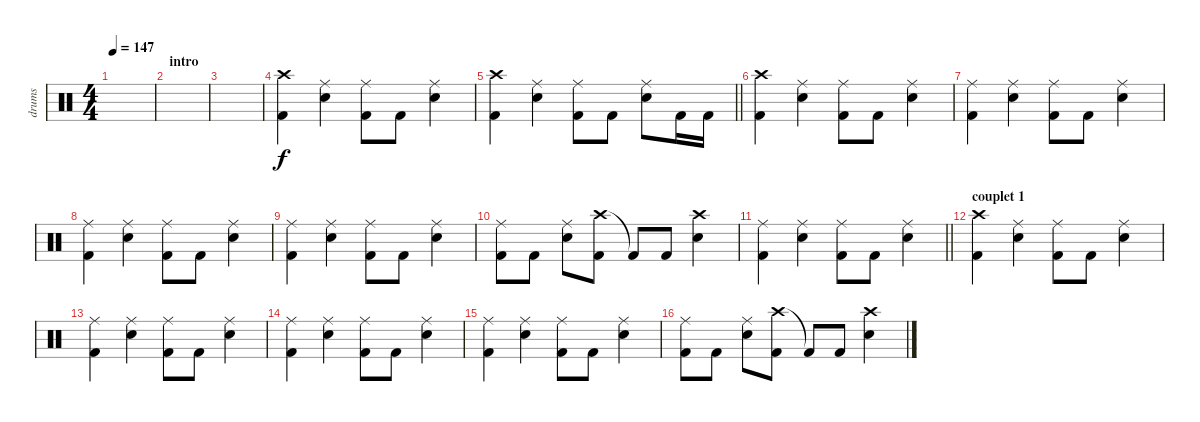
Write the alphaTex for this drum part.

\track ("drums" "drums") {instrument percussion}
\staff {score}
\articulation defaults
\ts (4 4)
\tempo 147
\clef neutral
\ks c
|
\section ("" "intro")
|
|
("Crash high (hit)" "Kick (hit) 2").4 ("Ride (middle)" "Snare (hit) 2").4 ("Ride (middle)" "Kick (hit) 2").8 "Kick (hit) 2".8 ("Ride (middle)" "Snare (hit) 2").4 |
\barLineRight lightlight
("Crash high (hit)" "Kick (hit) 2").4 ("Ride (middle)" "Snare (hit) 2").4 ("Ride (middle)" "Kick (hit) 2").8 "Kick (hit) 2".8 ("Ride (middle)" "Snare (hit) 2").8 "Kick (hit) 2".16 "Kick (hit) 2".16 |
("Crash high (hit)" "Kick (hit) 2").4 ("Ride (middle)" "Snare (hit) 2").4 ("Ride (middle)" "Kick (hit) 2").8 "Kick (hit) 2".8 ("Ride (middle)" "Snare (hit) 2").4 |
("Ride (middle)" "Kick (hit) 2").4 ("Ride (middle)" "Snare (hit) 2").4 ("Ride (middle)" "Kick (hit) 2").8 "Kick (hit) 2".8 ("Ride (middle)" "Snare (hit) 2").4 |
("Ride (middle)" "Kick (hit) 2").4 ("Ride (middle)" "Snare (hit) 2").4 ("Ride (middle)" "Kick (hit) 2").8 "Kick (hit) 2".8 ("Ride (middle)" "Snare (hit) 2").4 |
("Ride (middle)" "Kick (hit) 2").4 ("Ride (middle)" "Snare (hit) 2").4 ("Ride (middle)" "Kick (hit) 2").8 "Kick (hit) 2".8 ("Ride (middle)" "Snare (hit) 2").4 |
("Ride (middle)" "Kick (hit) 2").8 "Kick (hit) 2".8 ("Ride (middle)" "Snare (hit) 2").8 ("Crash high (hit)" "Kick (hit) 2").8 "Kick (hit) 2"{t}.8 "Kick (hit) 2".8 ("Crash high (hit)" "Snare (hit) 2").4 |
\barLineRight lightlight
("Ride (middle)" "Kick (hit) 2").4 ("Ride (middle)" "Snare (hit) 2").4 ("Ride (middle)" "Kick (hit) 2").8 "Kick (hit) 2".8 ("Ride (middle)" "Snare (hit) 2").4 |
\section ("" "couplet 1")
("Crash high (hit)" "Kick (hit) 2").4 ("Ride (middle)" "Snare (hit) 2").4 ("Ride (middle)" "Kick (hit) 2").8 "Kick (hit) 2".8 ("Ride (middle)" "Snare (hit) 2").4 |
("Ride (middle)" "Kick (hit) 2").4 ("Ride (middle)" "Snare (hit) 2").4 ("Ride (middle)" "Kick (hit) 2").8 "Kick (hit) 2".8 ("Ride (middle)" "Snare (hit) 2").4 |
("Ride (middle)" "Kick (hit) 2").4 ("Ride (middle)" "Snare (hit) 2").4 ("Ride (middle)" "Kick (hit) 2").8 "Kick (hit) 2".8 ("Ride (middle)" "Snare (hit) 2").4 |
("Ride (middle)" "Kick (hit) 2").4 ("Ride (middle)" "Snare (hit) 2").4 ("Ride (middle)" "Kick (hit) 2").8 "Kick (hit) 2".8 ("Ride (middle)" "Snare (hit) 2").4 |
("Ride (middle)" "Kick (hit) 2").8 "Kick (hit) 2".8 ("Ride (middle)" "Snare (hit) 2").8 ("Crash high (hit)" "Kick (hit) 2").8 "Kick (hit) 2"{t}.8 "Kick (hit) 2".8 ("Crash high (hit)" "Snare (hit) 2").4
